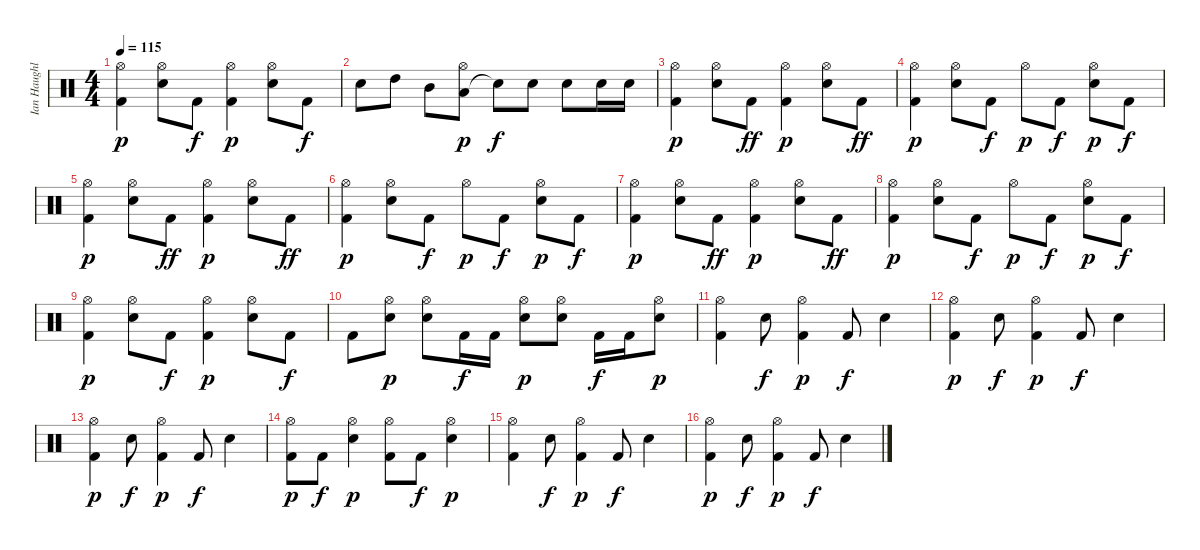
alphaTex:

\track ("Ian Haughland" "Ian Haughl") {instrument percussion}
\staff {score}
\articulation defaults
\ts (4 4)
\tempo 115
\clef neutral
\ks c
("Kick (hit) 2" "Hi-Hat (open)").4{dy p} ("Snare (hit) 2" "Hi-Hat (open)").8 "Kick (hit) 2".8{dy f} ("Kick (hit) 2" "Hi-Hat (open)").4{dy p} ("Snare (hit) 2" "Hi-Hat (open)").8 "Kick (hit) 2".8{dy f} |
"Snare (hit) 2".8 "High Tom (hit)".8 "Mid Tom (hit)".8 ("Low Floor Tom (hit)" "Hi-Hat (open)").8{dy p} "Snare (hit)"{t}.8{dy f} "Snare (hit) 2".8 "Snare (hit) 2".8 "Snare (hit) 2".16 "Snare (hit) 2".16 |
("Kick (hit) 2" "Hi-Hat (open)").4{dy p} ("Snare (hit) 2" "Hi-Hat (open)").8 "Kick (hit) 2".8{dy ff} ("Kick (hit) 2" "Hi-Hat (open)").4{dy p} ("Snare (hit) 2" "Hi-Hat (open)").8 "Kick (hit) 2".8{dy ff} |
("Kick (hit) 2" "Hi-Hat (open)").4{dy p} ("Snare (hit) 2" "Hi-Hat (open)").8 "Kick (hit) 2".8{dy f} "Hi-Hat (open)".8{dy p} "Kick (hit) 2".8{dy f} ("Snare (hit) 2" "Hi-Hat (open)").8{dy p} "Kick (hit) 2".8{dy f} |
("Kick (hit) 2" "Hi-Hat (open)").4{dy p} ("Snare (hit) 2" "Hi-Hat (open)").8 "Kick (hit) 2".8{dy ff} ("Kick (hit) 2" "Hi-Hat (open)").4{dy p} ("Snare (hit) 2" "Hi-Hat (open)").8 "Kick (hit) 2".8{dy ff} |
("Kick (hit) 2" "Hi-Hat (open)").4{dy p} ("Snare (hit) 2" "Hi-Hat (open)").8 "Kick (hit) 2".8{dy f} "Hi-Hat (open)".8{dy p} "Kick (hit) 2".8{dy f} ("Snare (hit) 2" "Hi-Hat (open)").8{dy p} "Kick (hit) 2".8{dy f} |
("Kick (hit) 2" "Hi-Hat (open)").4{dy p} ("Snare (hit) 2" "Hi-Hat (open)").8 "Kick (hit) 2".8{dy ff} ("Kick (hit) 2" "Hi-Hat (open)").4{dy p} ("Snare (hit) 2" "Hi-Hat (open)").8 "Kick (hit) 2".8{dy ff} |
("Kick (hit) 2" "Hi-Hat (open)").4{dy p} ("Snare (hit) 2" "Hi-Hat (open)").8 "Kick (hit) 2".8{dy f} "Hi-Hat (open)".8{dy p} "Kick (hit) 2".8{dy f} ("Snare (hit) 2" "Hi-Hat (open)").8{dy p} "Kick (hit) 2".8{dy f} |
("Kick (hit) 2" "Hi-Hat (open)").4{dy p} ("Snare (hit) 2" "Hi-Hat (open)").8 "Kick (hit) 2".8{dy f} ("Kick (hit) 2" "Hi-Hat (open)").4{dy p} ("Snare (hit) 2" "Hi-Hat (open)").8 "Kick (hit) 2".8{dy f} |
"Kick (hit) 2".8 ("Snare (hit) 2" "Hi-Hat (open)").8{dy p} ("Snare (hit) 2" "Hi-Hat (open)").8 "Kick (hit) 2".16{dy f} "Kick (hit) 2".16 ("Snare (hit) 2" "Hi-Hat (open)").8{dy p} ("Snare (hit) 2" "Hi-Hat (open)").8 "Kick (hit) 2".16{dy f} "Kick (hit) 2".16 ("Snare (hit) 2" "Hi-Hat (open)").8{dy p} |
("Kick (hit) 2" "Hi-Hat (open)").4 "Snare (hit) 2".8{dy f} ("Kick (hit) 2" "Hi-Hat (open)").4{dy p} "Kick (hit) 2".8{dy f} "Snare (hit) 2".4 |
("Kick (hit) 2" "Hi-Hat (open)").4{dy p} "Snare (hit) 2".8{dy f} ("Kick (hit) 2" "Hi-Hat (open)").4{dy p} "Kick (hit) 2".8{dy f} "Snare (hit) 2".4 |
("Kick (hit) 2" "Hi-Hat (open)").4{dy p} "Snare (hit) 2".8{dy f} ("Kick (hit) 2" "Hi-Hat (open)").4{dy p} "Kick (hit) 2".8{dy f} "Snare (hit) 2".4 |
("Kick (hit) 2" "Hi-Hat (open)").8{dy p} "Kick (hit) 2".8{dy f} ("Snare (hit) 2" "Hi-Hat (open)").4{dy p} ("Kick (hit) 2" "Hi-Hat (open)").8 "Kick (hit) 2".8{dy f} ("Snare (hit) 2" "Hi-Hat (open)").4{dy p} |
("Kick (hit) 2" "Hi-Hat (open)").4 "Snare (hit) 2".8{dy f} ("Kick (hit) 2" "Hi-Hat (open)").4{dy p} "Kick (hit) 2".8{dy f} "Snare (hit) 2".4 |
("Kick (hit) 2" "Hi-Hat (open)").4{dy p} "Snare (hit) 2".8{dy f} ("Kick (hit) 2" "Hi-Hat (open)").4{dy p} "Kick (hit) 2".8{dy f} "Snare (hit) 2".4
